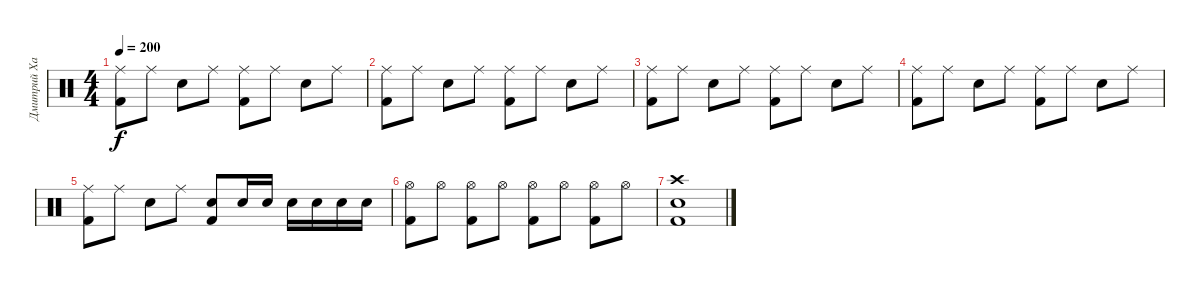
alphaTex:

\track ("Дмитрий Хакимов" "Дмитрий Ха") {instrument percussion}
\staff {score}
\articulation defaults
\ts (4 4)
\tempo 200
\clef neutral
\ks c
("Ride (middle)" "Kick (hit) 2").8{dy f} "Ride (middle)".8 "Electric Snare (hit)".8 "Ride (middle)".8 ("Ride (middle)" "Kick (hit) 2").8 "Ride (middle)".8 "Electric Snare (hit)".8 "Ride (middle)".8 |
("Ride (middle)" "Kick (hit) 2").8 "Ride (middle)".8 "Electric Snare (hit)".8 "Ride (middle)".8 ("Ride (middle)" "Kick (hit) 2").8 "Ride (middle)".8 "Electric Snare (hit)".8 "Ride (middle)".8 |
("Ride (middle)" "Kick (hit) 2").8 "Ride (middle)".8 "Electric Snare (hit)".8 "Ride (middle)".8 ("Ride (middle)" "Kick (hit) 2").8 "Ride (middle)".8 "Electric Snare (hit)".8 "Ride (middle)".8 |
("Ride (middle)" "Kick (hit) 2").8 "Ride (middle)".8 "Electric Snare (hit)".8 "Ride (middle)".8 ("Ride (middle)" "Kick (hit) 2").8 "Ride (middle)".8 "Electric Snare (hit)".8 "Ride (middle)".8 |
("Ride (middle)" "Kick (hit) 2").8 "Ride (middle)".8 "Electric Snare (hit)".8 "Ride (middle)".8 ("Electric Snare (hit)" "Kick (hit) 2").8 "Electric Snare (hit)".16 "Electric Snare (hit)".16 "Electric Snare (hit)".16 "Electric Snare (hit)".16 "Electric Snare (hit)".16 "Electric Snare (hit)".16 |
("Hi-Hat (open)" "Kick (hit) 2").8 "Hi-Hat (open)".8 ("Hi-Hat (open)" "Kick (hit) 2").8 "Hi-Hat (open)".8 ("Hi-Hat (open)" "Kick (hit) 2").8 "Hi-Hat (open)".8 ("Hi-Hat (open)" "Kick (hit) 2").8 "Hi-Hat (open)".8 |
("Electric Snare (hit)" "Crash high (hit)" "Kick (hit) 2").1
